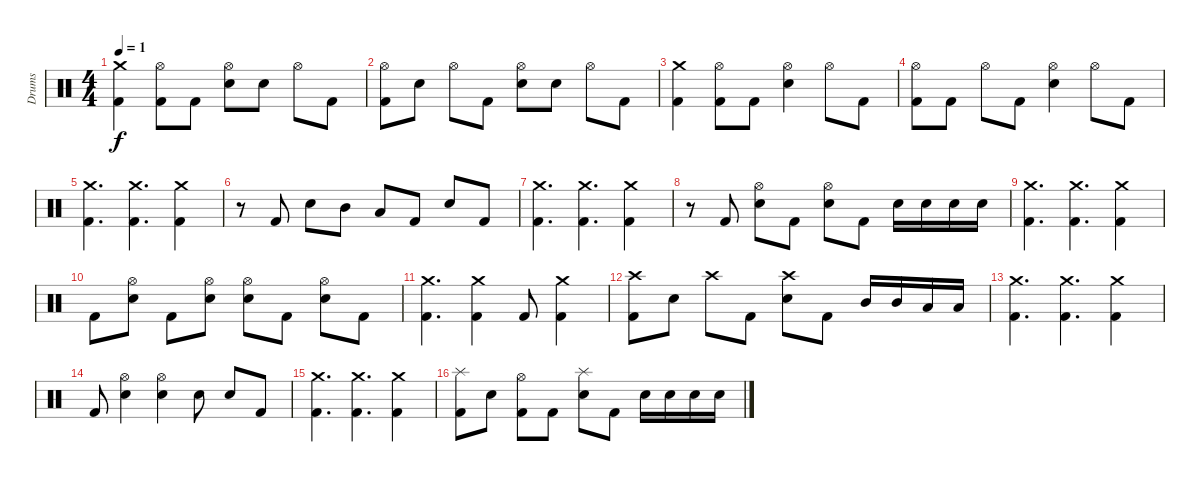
\track ("Drums" "Drums") {instrument percussion}
\staff {score}
\articulation defaults
\ts (4 4)
\tempo 1
\clef neutral
\ks c
("Kick (hit) 2" "Crash medium (hit)").4{dy f} ("Hi-Hat (open)" "Kick (hit) 2").8 "Kick (hit) 2".8 ("Snare (hit) 2" "Hi-Hat (open)").8 "Snare (hit) 2".8 "Hi-Hat (open)".8 "Kick (hit) 2".8 |
("Hi-Hat (open)" "Kick (hit) 2").8 "Snare (hit) 2".8 "Hi-Hat (open)".8 "Kick (hit) 2".8 ("Snare (hit) 2" "Hi-Hat (open)").8 "Snare (hit) 2".8 "Hi-Hat (open)".8 "Kick (hit) 2".8 |
("Kick (hit) 2" "Crash medium (hit)").4 ("Hi-Hat (open)" "Kick (hit) 2").8 "Kick (hit) 2".8 ("Snare (hit) 2" "Hi-Hat (open)").4 "Hi-Hat (open)".8 "Kick (hit) 2".8 |
("Kick (hit) 2" "Hi-Hat (open)").8 "Kick (hit) 2".8 "Hi-Hat (open)".8 "Kick (hit) 2".8 ("Snare (hit) 2" "Hi-Hat (open)").4 "Hi-Hat (open)".8 "Kick (hit) 2".8 |
("Kick (hit) 2" "Crash medium (hit)").4{d} ("Crash medium (hit)" "Kick (hit) 2").4{d} ("Crash medium (hit)" "Kick (hit) 2").4 |
r.8 "Kick (hit) 2".8 "Snare (hit) 2".8 "Mid Tom (hit)".8 "Low Tom (hit)".8 "Kick (hit) 2".8 "Snare (hit) 2".8 "Kick (hit) 2".8 |
("Kick (hit) 2" "Crash medium (hit)").4{d} ("Crash medium (hit)" "Kick (hit) 2").4{d} ("Crash medium (hit)" "Kick (hit) 2").4 |
r.8 "Kick (hit) 2".8 ("Snare (hit) 2" "Hi-Hat (open)").8 "Kick (hit) 2".8 ("Snare (hit) 2" "Hi-Hat (open)").8 "Kick (hit) 2".8 "Snare (hit) 2".16 "Snare (hit) 2".16 "Snare (hit) 2".16 "Snare (hit) 2".16 |
("Kick (hit) 2" "Crash medium (hit)").4{d} ("Crash medium (hit)" "Kick (hit) 2").4{d} ("Crash medium (hit)" "Kick (hit) 2").4 |
"Kick (hit) 2".8 ("Snare (hit) 2" "Hi-Hat (open)").8 "Kick (hit) 2".8 ("Snare (hit) 2" "Hi-Hat (open)").8 ("Snare (hit) 2" "Hi-Hat (open)").8 "Kick (hit) 2".8 ("Snare (hit) 2" "Hi-Hat (open)").8 "Kick (hit) 2".8 |
("Kick (hit) 2" "Crash medium (hit)").4{d} ("Crash medium (hit)" "Kick (hit) 2").4 "Kick (hit) 2".8 ("Crash medium (hit)" "Kick (hit) 2").4 |
("Kick (hit) 2" "Crash high (hit)").8 "Snare (hit) 2".8 "Crash high (hit)".8 "Kick (hit) 2".8 ("Snare (hit) 2" "Crash high (hit)").8 "Kick (hit) 2".8 "Mid Tom (hit)".16 "Mid Tom (hit)".16 "Low Tom (hit)".16 "Low Tom (hit)".16 |
("Kick (hit) 2" "Crash medium (hit)").4{d} ("Crash medium (hit)" "Kick (hit) 2").4{d} ("Crash medium (hit)" "Kick (hit) 2").4 |
"Kick (hit) 2".8 ("Snare (hit) 2" "Hi-Hat (open)").4 ("Snare (hit) 2" "Hi-Hat (open)").4 "Snare (hit) 2".8 "Snare (hit) 2".8 "Kick (hit) 2".8 |
("Kick (hit) 2" "Crash medium (hit)").4{d} ("Crash medium (hit)" "Kick (hit) 2").4{d} ("Crash medium (hit)" "Kick (hit) 2").4 |
("Splash (hit)" "Kick (hit) 2").8 "Snare (hit) 2".8 ("Hi-Hat (open)" "Kick (hit) 2").8 "Kick (hit) 2".8 ("Snare (hit) 2" "Splash (hit)").8 "Kick (hit) 2".8 "Snare (hit) 2".16 "Snare (hit) 2".16 "Snare (hit) 2".16 "Snare (hit) 2".16
